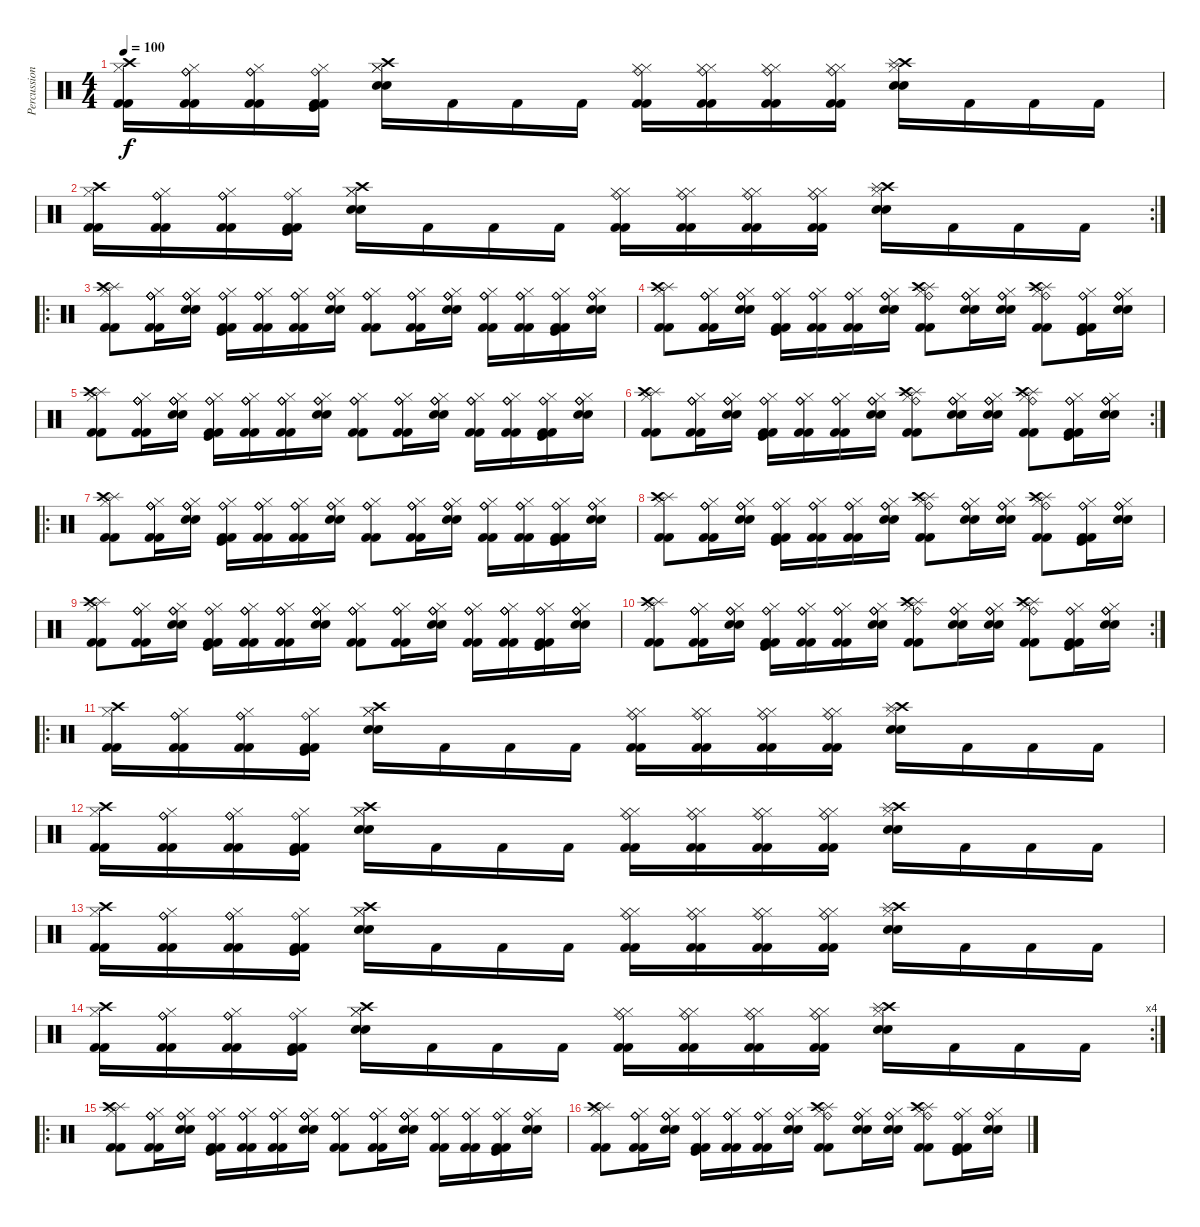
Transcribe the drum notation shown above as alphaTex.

\track ("Percussion" "Percussion") {instrument percussion}
\staff {score}
\articulation defaults
\ts (4 4)
\tempo 100
\clef neutral
\ks c
("Crash high (hit)" "Hi-Hat (closed)" "Kick (hit) 2" "Kick (hit) 2").16{dy f} ("Ride (bell)" "Ride (bell)" "Hi-Hat (closed)" "Kick (hit) 2" "Kick (hit) 2").16 ("Ride (bell)" "Ride (bell)" "Hi-Hat (closed)" "Kick (hit) 2" "Kick (hit) 2").16 ("Ride (bell)" "Kick (hit)" "Hi-Hat (closed)" "Kick (hit) 2" "Kick (hit) 2").16 ("Crash high (hit)" "Hi-Hat (closed)" "Hi-Hat (closed)" "Snare (hit) 2" "Snare (hit) 2").16 "Kick (hit) 2".16 "Kick (hit) 2".16 "Kick (hit) 2".16 ("Ride (bell)" "Hi-Hat (closed)" "Hi-Hat (closed)" "Kick (hit) 2" "Kick (hit) 2").16 ("Ride (bell)" "Hi-Hat (closed)" "Hi-Hat (closed)" "Kick (hit) 2" "Kick (hit) 2").16 ("Ride (bell)" "Hi-Hat (closed)" "Hi-Hat (closed)" "Kick (hit) 2" "Kick (hit) 2").16 ("Ride (bell)" "Hi-Hat (closed)" "Hi-Hat (closed)" "Kick (hit) 2" "Kick (hit) 2").16 ("Crash high (hit)" "Splash (hit)" "Hi-Hat (closed)" "Snare (hit) 2" "Snare (hit) 2").16 "Kick (hit) 2".16 "Kick (hit) 2".16 "Kick (hit) 2".16 |
\rc 2
("Crash high (hit)" "Hi-Hat (closed)" "Kick (hit) 2" "Kick (hit) 2").16 ("Ride (bell)" "Ride (bell)" "Hi-Hat (closed)" "Kick (hit) 2" "Kick (hit) 2").16 ("Ride (bell)" "Ride (bell)" "Hi-Hat (closed)" "Kick (hit) 2" "Kick (hit) 2").16 ("Ride (bell)" "Kick (hit)" "Hi-Hat (closed)" "Kick (hit) 2" "Kick (hit) 2").16 ("Crash high (hit)" "Hi-Hat (closed)" "Hi-Hat (closed)" "Snare (hit) 2" "Snare (hit) 2").16 "Kick (hit) 2".16 "Kick (hit) 2".16 "Kick (hit) 2".16 ("Ride (bell)" "Hi-Hat (closed)" "Hi-Hat (closed)" "Kick (hit) 2" "Kick (hit) 2").16 ("Ride (bell)" "Hi-Hat (closed)" "Hi-Hat (closed)" "Kick (hit) 2" "Kick (hit) 2").16 ("Ride (bell)" "Hi-Hat (closed)" "Hi-Hat (closed)" "Kick (hit) 2" "Kick (hit) 2").16 ("Ride (bell)" "Hi-Hat (closed)" "Hi-Hat (closed)" "Kick (hit) 2" "Kick (hit) 2").16 ("Crash high (hit)" "Splash (hit)" "Hi-Hat (closed)" "Snare (hit) 2" "Snare (hit) 2").16 "Kick (hit) 2".16 "Kick (hit) 2".16 "Kick (hit) 2".16 |
\ro
("Splash (hit)" "Crash high (hit)" "Hi-Hat (closed)" "Kick (hit) 2" "Kick (hit) 2").8 ("Ride (bell)" "Ride (bell)" "Ride (bell)" "Hi-Hat (closed)" "Kick (hit) 2" "Kick (hit) 2").16 ("Ride (bell)" "Ride (bell)" "Ride (bell)" "Hi-Hat (closed)" "Snare (hit) 2" "Snare (hit) 2").16 ("Ride (bell)" "Ride (bell)" "Kick (hit)" "Hi-Hat (closed)" "Kick (hit) 2" "Kick (hit) 2").16 ("Ride (bell)" "Ride (bell)" "Ride (bell)" "Hi-Hat (closed)" "Kick (hit) 2" "Kick (hit) 2").16 ("Ride (bell)" "Ride (bell)" "Ride (bell)" "Hi-Hat (closed)" "Kick (hit) 2" "Kick (hit) 2").16 ("Ride (bell)" "Ride (bell)" "Ride (bell)" "Hi-Hat (closed)" "Snare (hit) 2" "Snare (hit) 2").16 ("Ride (bell)" "Ride (bell)" "Ride (bell)" "Hi-Hat (closed)" "Kick (hit) 2" "Kick (hit) 2").8 ("Ride (bell)" "Ride (bell)" "Ride (bell)" "Hi-Hat (closed)" "Kick (hit) 2" "Kick (hit) 2").16 ("Ride (bell)" "Ride (bell)" "Ride (bell)" "Hi-Hat (closed)" "Snare (hit) 2" "Snare (hit) 2").16 ("Ride (bell)" "Ride (bell)" "Ride (bell)" "Hi-Hat (closed)" "Kick (hit) 2" "Kick (hit) 2").16 ("Ride (bell)" "Ride (bell)" "Ride (bell)" "Hi-Hat (closed)" "Kick (hit) 2" "Kick (hit) 2").16 ("Kick (hit)" "Ride (bell)" "Ride (bell)" "Hi-Hat (closed)" "Kick (hit) 2" "Kick (hit) 2").16 ("Ride (bell)" "Ride (bell)" "Ride (bell)" "Hi-Hat (closed)" "Snare (hit) 2" "Snare (hit) 2").16 |
("Splash (hit)" "Crash high (hit)" "Hi-Hat (closed)" "Kick (hit) 2" "Kick (hit) 2").8 ("Ride (bell)" "Ride (bell)" "Ride (bell)" "Hi-Hat (closed)" "Kick (hit) 2" "Kick (hit) 2").16 ("Ride (bell)" "Ride (bell)" "Ride (bell)" "Hi-Hat (closed)" "Snare (hit) 2" "Snare (hit) 2").16 ("Ride (bell)" "Ride (bell)" "Kick (hit)" "Hi-Hat (closed)" "Kick (hit) 2" "Kick (hit) 2").16 ("Ride (bell)" "Ride (bell)" "Ride (bell)" "Hi-Hat (closed)" "Kick (hit) 2" "Kick (hit) 2").16 ("Ride (bell)" "Ride (bell)" "Ride (bell)" "Hi-Hat (closed)" "Kick (hit) 2" "Kick (hit) 2").16 ("Ride (bell)" "Ride (bell)" "Ride (bell)" "Hi-Hat (closed)" "Snare (hit) 2" "Snare (hit) 2").16 ("Splash (hit)" "Ride (bell)" "Crash high (hit)" "Hi-Hat (closed)" "Kick (hit) 2" "Kick (hit) 2").8 ("Ride (bell)" "Ride (bell)" "Ride (bell)" "Hi-Hat (closed)" "Snare (hit) 2" "Snare (hit) 2").16 ("Ride (bell)" "Ride (bell)" "Ride (bell)" "Hi-Hat (closed)" "Snare (hit) 2" "Snare (hit) 2").16 ("Splash (hit)" "Ride (bell)" "Crash high (hit)" "Hi-Hat (closed)" "Kick (hit) 2" "Kick (hit) 2").8 ("Kick (hit)" "Ride (bell)" "Ride (bell)" "Hi-Hat (closed)" "Kick (hit) 2" "Kick (hit) 2").16 ("Ride (bell)" "Ride (bell)" "Ride (bell)" "Hi-Hat (closed)" "Snare (hit) 2" "Snare (hit) 2").16 |
("Splash (hit)" "Crash high (hit)" "Hi-Hat (closed)" "Kick (hit) 2" "Kick (hit) 2").8 ("Ride (bell)" "Ride (bell)" "Ride (bell)" "Hi-Hat (closed)" "Kick (hit) 2" "Kick (hit) 2").16 ("Ride (bell)" "Ride (bell)" "Ride (bell)" "Hi-Hat (closed)" "Snare (hit) 2" "Snare (hit) 2").16 ("Ride (bell)" "Ride (bell)" "Kick (hit)" "Hi-Hat (closed)" "Kick (hit) 2" "Kick (hit) 2").16 ("Ride (bell)" "Ride (bell)" "Ride (bell)" "Hi-Hat (closed)" "Kick (hit) 2" "Kick (hit) 2").16 ("Ride (bell)" "Ride (bell)" "Ride (bell)" "Hi-Hat (closed)" "Kick (hit) 2" "Kick (hit) 2").16 ("Ride (bell)" "Ride (bell)" "Ride (bell)" "Hi-Hat (closed)" "Snare (hit) 2" "Snare (hit) 2").16 ("Ride (bell)" "Ride (bell)" "Ride (bell)" "Hi-Hat (closed)" "Kick (hit) 2" "Kick (hit) 2").8 ("Ride (bell)" "Ride (bell)" "Ride (bell)" "Hi-Hat (closed)" "Kick (hit) 2" "Kick (hit) 2").16 ("Ride (bell)" "Ride (bell)" "Ride (bell)" "Hi-Hat (closed)" "Snare (hit) 2" "Snare (hit) 2").16 ("Ride (bell)" "Ride (bell)" "Ride (bell)" "Hi-Hat (closed)" "Kick (hit) 2" "Kick (hit) 2").16 ("Ride (bell)" "Ride (bell)" "Ride (bell)" "Hi-Hat (closed)" "Kick (hit) 2" "Kick (hit) 2").16 ("Kick (hit)" "Ride (bell)" "Ride (bell)" "Hi-Hat (closed)" "Kick (hit) 2" "Kick (hit) 2").16 ("Ride (bell)" "Ride (bell)" "Ride (bell)" "Hi-Hat (closed)" "Snare (hit) 2" "Snare (hit) 2").16 |
\rc 2
("Splash (hit)" "Crash high (hit)" "Hi-Hat (closed)" "Kick (hit) 2" "Kick (hit) 2").8 ("Ride (bell)" "Ride (bell)" "Ride (bell)" "Hi-Hat (closed)" "Kick (hit) 2" "Kick (hit) 2").16 ("Ride (bell)" "Ride (bell)" "Ride (bell)" "Hi-Hat (closed)" "Snare (hit) 2" "Snare (hit) 2").16 ("Ride (bell)" "Ride (bell)" "Kick (hit)" "Hi-Hat (closed)" "Kick (hit) 2" "Kick (hit) 2").16 ("Ride (bell)" "Ride (bell)" "Ride (bell)" "Hi-Hat (closed)" "Kick (hit) 2" "Kick (hit) 2").16 ("Ride (bell)" "Ride (bell)" "Ride (bell)" "Hi-Hat (closed)" "Kick (hit) 2" "Kick (hit) 2").16 ("Ride (bell)" "Ride (bell)" "Ride (bell)" "Hi-Hat (closed)" "Snare (hit) 2" "Snare (hit) 2").16 ("Splash (hit)" "Ride (bell)" "Crash high (hit)" "Hi-Hat (closed)" "Kick (hit) 2" "Kick (hit) 2").8 ("Ride (bell)" "Ride (bell)" "Ride (bell)" "Hi-Hat (closed)" "Snare (hit) 2" "Snare (hit) 2").16 ("Ride (bell)" "Ride (bell)" "Ride (bell)" "Hi-Hat (closed)" "Snare (hit) 2" "Snare (hit) 2").16 ("Splash (hit)" "Ride (bell)" "Crash high (hit)" "Hi-Hat (closed)" "Kick (hit) 2" "Kick (hit) 2").8 ("Kick (hit)" "Ride (bell)" "Ride (bell)" "Hi-Hat (closed)" "Kick (hit) 2" "Kick (hit) 2").16 ("Ride (bell)" "Ride (bell)" "Ride (bell)" "Hi-Hat (closed)" "Snare (hit) 2" "Snare (hit) 2").16 |
\ro
("Splash (hit)" "Crash high (hit)" "Hi-Hat (closed)" "Kick (hit) 2" "Kick (hit) 2").8 ("Ride (bell)" "Ride (bell)" "Ride (bell)" "Hi-Hat (closed)" "Kick (hit) 2" "Kick (hit) 2").16 ("Ride (bell)" "Ride (bell)" "Ride (bell)" "Hi-Hat (closed)" "Snare (hit) 2" "Snare (hit) 2").16 ("Ride (bell)" "Ride (bell)" "Kick (hit)" "Hi-Hat (closed)" "Kick (hit) 2" "Kick (hit) 2").16 ("Ride (bell)" "Ride (bell)" "Ride (bell)" "Hi-Hat (closed)" "Kick (hit) 2" "Kick (hit) 2").16 ("Ride (bell)" "Ride (bell)" "Ride (bell)" "Hi-Hat (closed)" "Kick (hit) 2" "Kick (hit) 2").16 ("Ride (bell)" "Ride (bell)" "Ride (bell)" "Hi-Hat (closed)" "Snare (hit) 2" "Snare (hit) 2").16 ("Ride (bell)" "Ride (bell)" "Ride (bell)" "Hi-Hat (closed)" "Kick (hit) 2" "Kick (hit) 2").8 ("Ride (bell)" "Ride (bell)" "Ride (bell)" "Hi-Hat (closed)" "Kick (hit) 2" "Kick (hit) 2").16 ("Ride (bell)" "Ride (bell)" "Ride (bell)" "Hi-Hat (closed)" "Snare (hit) 2" "Snare (hit) 2").16 ("Ride (bell)" "Ride (bell)" "Ride (bell)" "Hi-Hat (closed)" "Kick (hit) 2" "Kick (hit) 2").16 ("Ride (bell)" "Ride (bell)" "Ride (bell)" "Hi-Hat (closed)" "Kick (hit) 2" "Kick (hit) 2").16 ("Kick (hit)" "Ride (bell)" "Ride (bell)" "Hi-Hat (closed)" "Kick (hit) 2" "Kick (hit) 2").16 ("Ride (bell)" "Ride (bell)" "Ride (bell)" "Hi-Hat (closed)" "Snare (hit) 2" "Snare (hit) 2").16 |
("Splash (hit)" "Crash high (hit)" "Hi-Hat (closed)" "Kick (hit) 2" "Kick (hit) 2").8 ("Ride (bell)" "Ride (bell)" "Ride (bell)" "Hi-Hat (closed)" "Kick (hit) 2" "Kick (hit) 2").16 ("Ride (bell)" "Ride (bell)" "Ride (bell)" "Hi-Hat (closed)" "Snare (hit) 2" "Snare (hit) 2").16 ("Ride (bell)" "Ride (bell)" "Kick (hit)" "Hi-Hat (closed)" "Kick (hit) 2" "Kick (hit) 2").16 ("Ride (bell)" "Ride (bell)" "Ride (bell)" "Hi-Hat (closed)" "Kick (hit) 2" "Kick (hit) 2").16 ("Ride (bell)" "Ride (bell)" "Ride (bell)" "Hi-Hat (closed)" "Kick (hit) 2" "Kick (hit) 2").16 ("Ride (bell)" "Ride (bell)" "Ride (bell)" "Hi-Hat (closed)" "Snare (hit) 2" "Snare (hit) 2").16 ("Splash (hit)" "Ride (bell)" "Crash high (hit)" "Hi-Hat (closed)" "Kick (hit) 2" "Kick (hit) 2").8 ("Ride (bell)" "Ride (bell)" "Ride (bell)" "Hi-Hat (closed)" "Snare (hit) 2" "Snare (hit) 2").16 ("Ride (bell)" "Ride (bell)" "Ride (bell)" "Hi-Hat (closed)" "Snare (hit) 2" "Snare (hit) 2").16 ("Splash (hit)" "Ride (bell)" "Crash high (hit)" "Hi-Hat (closed)" "Kick (hit) 2" "Kick (hit) 2").8 ("Kick (hit)" "Ride (bell)" "Ride (bell)" "Hi-Hat (closed)" "Kick (hit) 2" "Kick (hit) 2").16 ("Ride (bell)" "Ride (bell)" "Ride (bell)" "Hi-Hat (closed)" "Snare (hit) 2" "Snare (hit) 2").16 |
("Splash (hit)" "Crash high (hit)" "Hi-Hat (closed)" "Kick (hit) 2" "Kick (hit) 2").8 ("Ride (bell)" "Ride (bell)" "Ride (bell)" "Hi-Hat (closed)" "Kick (hit) 2" "Kick (hit) 2").16 ("Ride (bell)" "Ride (bell)" "Ride (bell)" "Hi-Hat (closed)" "Snare (hit) 2" "Snare (hit) 2").16 ("Ride (bell)" "Ride (bell)" "Kick (hit)" "Hi-Hat (closed)" "Kick (hit) 2" "Kick (hit) 2").16 ("Ride (bell)" "Ride (bell)" "Ride (bell)" "Hi-Hat (closed)" "Kick (hit) 2" "Kick (hit) 2").16 ("Ride (bell)" "Ride (bell)" "Ride (bell)" "Hi-Hat (closed)" "Kick (hit) 2" "Kick (hit) 2").16 ("Ride (bell)" "Ride (bell)" "Ride (bell)" "Hi-Hat (closed)" "Snare (hit) 2" "Snare (hit) 2").16 ("Ride (bell)" "Ride (bell)" "Ride (bell)" "Hi-Hat (closed)" "Kick (hit) 2" "Kick (hit) 2").8 ("Ride (bell)" "Ride (bell)" "Ride (bell)" "Hi-Hat (closed)" "Kick (hit) 2" "Kick (hit) 2").16 ("Ride (bell)" "Ride (bell)" "Ride (bell)" "Hi-Hat (closed)" "Snare (hit) 2" "Snare (hit) 2").16 ("Ride (bell)" "Ride (bell)" "Ride (bell)" "Hi-Hat (closed)" "Kick (hit) 2" "Kick (hit) 2").16 ("Ride (bell)" "Ride (bell)" "Ride (bell)" "Hi-Hat (closed)" "Kick (hit) 2" "Kick (hit) 2").16 ("Kick (hit)" "Ride (bell)" "Ride (bell)" "Hi-Hat (closed)" "Kick (hit) 2" "Kick (hit) 2").16 ("Ride (bell)" "Ride (bell)" "Ride (bell)" "Hi-Hat (closed)" "Snare (hit) 2" "Snare (hit) 2").16 |
\rc 2
("Splash (hit)" "Crash high (hit)" "Hi-Hat (closed)" "Kick (hit) 2" "Kick (hit) 2").8 ("Ride (bell)" "Ride (bell)" "Ride (bell)" "Hi-Hat (closed)" "Kick (hit) 2" "Kick (hit) 2").16 ("Ride (bell)" "Ride (bell)" "Ride (bell)" "Hi-Hat (closed)" "Snare (hit) 2" "Snare (hit) 2").16 ("Ride (bell)" "Ride (bell)" "Kick (hit)" "Hi-Hat (closed)" "Kick (hit) 2" "Kick (hit) 2").16 ("Ride (bell)" "Ride (bell)" "Ride (bell)" "Hi-Hat (closed)" "Kick (hit) 2" "Kick (hit) 2").16 ("Ride (bell)" "Ride (bell)" "Ride (bell)" "Hi-Hat (closed)" "Kick (hit) 2" "Kick (hit) 2").16 ("Ride (bell)" "Ride (bell)" "Ride (bell)" "Hi-Hat (closed)" "Snare (hit) 2" "Snare (hit) 2").16 ("Splash (hit)" "Ride (bell)" "Crash high (hit)" "Hi-Hat (closed)" "Kick (hit) 2" "Kick (hit) 2").8 ("Ride (bell)" "Ride (bell)" "Ride (bell)" "Hi-Hat (closed)" "Snare (hit) 2" "Snare (hit) 2").16 ("Ride (bell)" "Ride (bell)" "Ride (bell)" "Hi-Hat (closed)" "Snare (hit) 2" "Snare (hit) 2").16 ("Splash (hit)" "Ride (bell)" "Crash high (hit)" "Hi-Hat (closed)" "Kick (hit) 2" "Kick (hit) 2").8 ("Kick (hit)" "Ride (bell)" "Ride (bell)" "Hi-Hat (closed)" "Kick (hit) 2" "Kick (hit) 2").16 ("Ride (bell)" "Ride (bell)" "Ride (bell)" "Hi-Hat (closed)" "Snare (hit) 2" "Snare (hit) 2").16 |
\ro
("Crash high (hit)" "Hi-Hat (closed)" "Kick (hit) 2" "Kick (hit) 2").16 ("Ride (bell)" "Ride (bell)" "Hi-Hat (closed)" "Kick (hit) 2" "Kick (hit) 2").16 ("Ride (bell)" "Ride (bell)" "Hi-Hat (closed)" "Kick (hit) 2" "Kick (hit) 2").16 ("Ride (bell)" "Kick (hit)" "Hi-Hat (closed)" "Kick (hit) 2" "Kick (hit) 2").16 ("Crash high (hit)" "Hi-Hat (closed)" "Hi-Hat (closed)" "Snare (hit) 2" "Snare (hit) 2").16 "Kick (hit) 2".16 "Kick (hit) 2".16 "Kick (hit) 2".16 ("Ride (bell)" "Hi-Hat (closed)" "Hi-Hat (closed)" "Kick (hit) 2" "Kick (hit) 2").16 ("Ride (bell)" "Hi-Hat (closed)" "Hi-Hat (closed)" "Kick (hit) 2" "Kick (hit) 2").16 ("Ride (bell)" "Hi-Hat (closed)" "Hi-Hat (closed)" "Kick (hit) 2" "Kick (hit) 2").16 ("Ride (bell)" "Hi-Hat (closed)" "Hi-Hat (closed)" "Kick (hit) 2" "Kick (hit) 2").16 ("Crash high (hit)" "Splash (hit)" "Hi-Hat (closed)" "Snare (hit) 2" "Snare (hit) 2").16 "Kick (hit) 2".16 "Kick (hit) 2".16 "Kick (hit) 2".16 |
("Crash high (hit)" "Hi-Hat (closed)" "Kick (hit) 2" "Kick (hit) 2").16 ("Ride (bell)" "Ride (bell)" "Hi-Hat (closed)" "Kick (hit) 2" "Kick (hit) 2").16 ("Ride (bell)" "Ride (bell)" "Hi-Hat (closed)" "Kick (hit) 2" "Kick (hit) 2").16 ("Ride (bell)" "Kick (hit)" "Hi-Hat (closed)" "Kick (hit) 2" "Kick (hit) 2").16 ("Crash high (hit)" "Hi-Hat (closed)" "Hi-Hat (closed)" "Snare (hit) 2" "Snare (hit) 2").16 "Kick (hit) 2".16 "Kick (hit) 2".16 "Kick (hit) 2".16 ("Ride (bell)" "Hi-Hat (closed)" "Hi-Hat (closed)" "Kick (hit) 2" "Kick (hit) 2").16 ("Ride (bell)" "Hi-Hat (closed)" "Hi-Hat (closed)" "Kick (hit) 2" "Kick (hit) 2").16 ("Ride (bell)" "Hi-Hat (closed)" "Hi-Hat (closed)" "Kick (hit) 2" "Kick (hit) 2").16 ("Ride (bell)" "Hi-Hat (closed)" "Hi-Hat (closed)" "Kick (hit) 2" "Kick (hit) 2").16 ("Crash high (hit)" "Splash (hit)" "Hi-Hat (closed)" "Snare (hit) 2" "Snare (hit) 2").16 "Kick (hit) 2".16 "Kick (hit) 2".16 "Kick (hit) 2".16 |
("Crash high (hit)" "Hi-Hat (closed)" "Kick (hit) 2" "Kick (hit) 2").16 ("Ride (bell)" "Ride (bell)" "Hi-Hat (closed)" "Kick (hit) 2" "Kick (hit) 2").16 ("Ride (bell)" "Ride (bell)" "Hi-Hat (closed)" "Kick (hit) 2" "Kick (hit) 2").16 ("Ride (bell)" "Kick (hit)" "Hi-Hat (closed)" "Kick (hit) 2" "Kick (hit) 2").16 ("Crash high (hit)" "Hi-Hat (closed)" "Hi-Hat (closed)" "Snare (hit) 2" "Snare (hit) 2").16 "Kick (hit) 2".16 "Kick (hit) 2".16 "Kick (hit) 2".16 ("Ride (bell)" "Hi-Hat (closed)" "Hi-Hat (closed)" "Kick (hit) 2" "Kick (hit) 2").16 ("Ride (bell)" "Hi-Hat (closed)" "Hi-Hat (closed)" "Kick (hit) 2" "Kick (hit) 2").16 ("Ride (bell)" "Hi-Hat (closed)" "Hi-Hat (closed)" "Kick (hit) 2" "Kick (hit) 2").16 ("Ride (bell)" "Hi-Hat (closed)" "Hi-Hat (closed)" "Kick (hit) 2" "Kick (hit) 2").16 ("Crash high (hit)" "Splash (hit)" "Hi-Hat (closed)" "Snare (hit) 2" "Snare (hit) 2").16 "Kick (hit) 2".16 "Kick (hit) 2".16 "Kick (hit) 2".16 |
\rc 4
("Crash high (hit)" "Hi-Hat (closed)" "Kick (hit) 2" "Kick (hit) 2").16 ("Ride (bell)" "Ride (bell)" "Hi-Hat (closed)" "Kick (hit) 2" "Kick (hit) 2").16 ("Ride (bell)" "Ride (bell)" "Hi-Hat (closed)" "Kick (hit) 2" "Kick (hit) 2").16 ("Ride (bell)" "Kick (hit)" "Hi-Hat (closed)" "Kick (hit) 2" "Kick (hit) 2").16 ("Crash high (hit)" "Hi-Hat (closed)" "Hi-Hat (closed)" "Snare (hit) 2" "Snare (hit) 2").16 "Kick (hit) 2".16 "Kick (hit) 2".16 "Kick (hit) 2".16 ("Ride (bell)" "Hi-Hat (closed)" "Hi-Hat (closed)" "Kick (hit) 2" "Kick (hit) 2").16 ("Ride (bell)" "Hi-Hat (closed)" "Hi-Hat (closed)" "Kick (hit) 2" "Kick (hit) 2").16 ("Ride (bell)" "Hi-Hat (closed)" "Hi-Hat (closed)" "Kick (hit) 2" "Kick (hit) 2").16 ("Ride (bell)" "Hi-Hat (closed)" "Hi-Hat (closed)" "Kick (hit) 2" "Kick (hit) 2").16 ("Crash high (hit)" "Splash (hit)" "Hi-Hat (closed)" "Snare (hit) 2" "Snare (hit) 2").16 "Kick (hit) 2".16 "Kick (hit) 2".16 "Kick (hit) 2".16 |
\ro
("Splash (hit)" "Crash high (hit)" "Hi-Hat (closed)" "Kick (hit) 2" "Kick (hit) 2").8 ("Ride (bell)" "Ride (bell)" "Ride (bell)" "Hi-Hat (closed)" "Kick (hit) 2" "Kick (hit) 2").16 ("Ride (bell)" "Ride (bell)" "Ride (bell)" "Hi-Hat (closed)" "Snare (hit) 2" "Snare (hit) 2").16 ("Ride (bell)" "Ride (bell)" "Kick (hit)" "Hi-Hat (closed)" "Kick (hit) 2" "Kick (hit) 2").16 ("Ride (bell)" "Ride (bell)" "Ride (bell)" "Hi-Hat (closed)" "Kick (hit) 2" "Kick (hit) 2").16 ("Ride (bell)" "Ride (bell)" "Ride (bell)" "Hi-Hat (closed)" "Kick (hit) 2" "Kick (hit) 2").16 ("Ride (bell)" "Ride (bell)" "Ride (bell)" "Hi-Hat (closed)" "Snare (hit) 2" "Snare (hit) 2").16 ("Ride (bell)" "Ride (bell)" "Ride (bell)" "Hi-Hat (closed)" "Kick (hit) 2" "Kick (hit) 2").8 ("Ride (bell)" "Ride (bell)" "Ride (bell)" "Hi-Hat (closed)" "Kick (hit) 2" "Kick (hit) 2").16 ("Ride (bell)" "Ride (bell)" "Ride (bell)" "Hi-Hat (closed)" "Snare (hit) 2" "Snare (hit) 2").16 ("Ride (bell)" "Ride (bell)" "Ride (bell)" "Hi-Hat (closed)" "Kick (hit) 2" "Kick (hit) 2").16 ("Ride (bell)" "Ride (bell)" "Ride (bell)" "Hi-Hat (closed)" "Kick (hit) 2" "Kick (hit) 2").16 ("Kick (hit)" "Ride (bell)" "Ride (bell)" "Hi-Hat (closed)" "Kick (hit) 2" "Kick (hit) 2").16 ("Ride (bell)" "Ride (bell)" "Ride (bell)" "Hi-Hat (closed)" "Snare (hit) 2" "Snare (hit) 2").16 |
("Splash (hit)" "Crash high (hit)" "Hi-Hat (closed)" "Kick (hit) 2" "Kick (hit) 2").8 ("Ride (bell)" "Ride (bell)" "Ride (bell)" "Hi-Hat (closed)" "Kick (hit) 2" "Kick (hit) 2").16 ("Ride (bell)" "Ride (bell)" "Ride (bell)" "Hi-Hat (closed)" "Snare (hit) 2" "Snare (hit) 2").16 ("Ride (bell)" "Ride (bell)" "Kick (hit)" "Hi-Hat (closed)" "Kick (hit) 2" "Kick (hit) 2").16 ("Ride (bell)" "Ride (bell)" "Ride (bell)" "Hi-Hat (closed)" "Kick (hit) 2" "Kick (hit) 2").16 ("Ride (bell)" "Ride (bell)" "Ride (bell)" "Hi-Hat (closed)" "Kick (hit) 2" "Kick (hit) 2").16 ("Ride (bell)" "Ride (bell)" "Ride (bell)" "Hi-Hat (closed)" "Snare (hit) 2" "Snare (hit) 2").16 ("Splash (hit)" "Ride (bell)" "Crash high (hit)" "Hi-Hat (closed)" "Kick (hit) 2" "Kick (hit) 2").8 ("Ride (bell)" "Ride (bell)" "Ride (bell)" "Hi-Hat (closed)" "Snare (hit) 2" "Snare (hit) 2").16 ("Ride (bell)" "Ride (bell)" "Ride (bell)" "Hi-Hat (closed)" "Snare (hit) 2" "Snare (hit) 2").16 ("Splash (hit)" "Ride (bell)" "Crash high (hit)" "Hi-Hat (closed)" "Kick (hit) 2" "Kick (hit) 2").8 ("Kick (hit)" "Ride (bell)" "Ride (bell)" "Hi-Hat (closed)" "Kick (hit) 2" "Kick (hit) 2").16 ("Ride (bell)" "Ride (bell)" "Ride (bell)" "Hi-Hat (closed)" "Snare (hit) 2" "Snare (hit) 2").16
